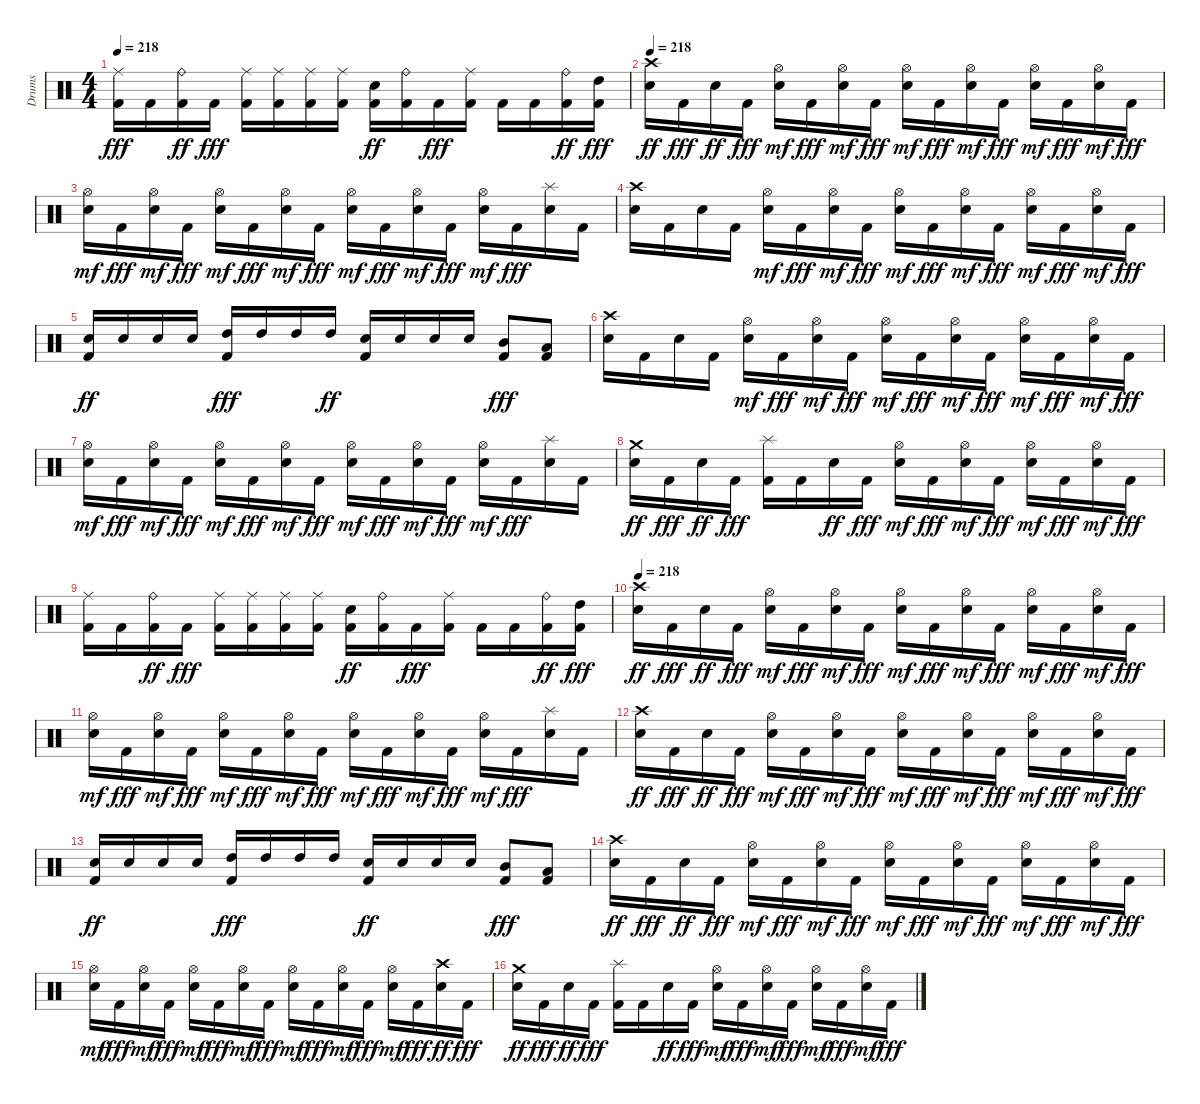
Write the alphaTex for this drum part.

\track ("Drums" "Drums") {instrument percussion}
\staff {score}
\articulation defaults
\ts (4 4)
\tempo 218
\clef neutral
\ks c
("Kick (hit) 2" "Ride (middle)").16{dy fff} "Kick (hit) 2".16 ("Kick (hit) 2" "Ride (bell)").16{dy ff} "Kick (hit) 2".16{dy fff} ("Kick (hit) 2" "Ride (middle)").16 ("Kick (hit) 2" "Ride (middle)").16 ("Kick (hit) 2" "Ride (middle)").16 ("Kick (hit) 2" "Ride (middle)").16 ("Kick (hit) 2" "Snare (hit) 2").16{dy ff} ("Kick (hit) 2" "Ride (bell)").16 "Kick (hit) 2".16{dy fff} ("Kick (hit) 2" "Ride (middle)").16 "Kick (hit) 2".16 "Kick (hit) 2".16 ("Kick (hit) 2" "Ride (bell)").16{dy ff} ("Kick (hit) 2" "High Tom (hit)").16{dy fff} |
\tempo 218
("Snare (hit) 2" "Crash high (hit)").16{dy ff} "Kick (hit) 2".16{dy fff} "Snare (hit) 2".16{dy ff} "Kick (hit) 2".16{dy fff} ("Snare (hit) 2" "Hi-Hat (open)").16{dy mf} "Kick (hit) 2".16{dy fff} ("Snare (hit) 2" "Hi-Hat (open)").16{dy mf} "Kick (hit) 2".16{dy fff} ("Snare (hit) 2" "Hi-Hat (open)").16{dy mf} "Kick (hit) 2".16{dy fff} ("Snare (hit) 2" "Hi-Hat (open)").16{dy mf} "Kick (hit) 2".16{dy fff} ("Snare (hit) 2" "Hi-Hat (open)").16{dy mf} "Kick (hit) 2".16{dy fff} ("Snare (hit) 2" "Hi-Hat (open)").16{dy mf} "Kick (hit) 2".16{dy fff} |
("Snare (hit) 2" "Hi-Hat (open)").16{dy mf} "Kick (hit) 2".16{dy fff} ("Snare (hit) 2" "Hi-Hat (open)").16{dy mf} "Kick (hit) 2".16{dy fff} ("Snare (hit) 2" "Hi-Hat (open)").16{dy mf} "Kick (hit) 2".16{dy fff} ("Snare (hit) 2" "Hi-Hat (open)").16{dy mf} "Kick (hit) 2".16{dy fff} ("Snare (hit) 2" "Hi-Hat (open)").16{dy mf} "Kick (hit) 2".16{dy fff} ("Snare (hit) 2" "Hi-Hat (open)").16{dy mf} "Kick (hit) 2".16{dy fff} ("Snare (hit) 2" "Hi-Hat (open)").16{dy mf} "Kick (hit) 2".16{dy fff} ("Snare (hit) 2" "Splash (hit)").16 "Kick (hit) 2".16 |
("Snare (hit) 2" "Crash high (hit)").16 "Kick (hit) 2".16 "Snare (hit) 2".16 "Kick (hit) 2".16 ("Snare (hit) 2" "Hi-Hat (open)").16{dy mf} "Kick (hit) 2".16{dy fff} ("Snare (hit) 2" "Hi-Hat (open)").16{dy mf} "Kick (hit) 2".16{dy fff} ("Snare (hit) 2" "Hi-Hat (open)").16{dy mf} "Kick (hit) 2".16{dy fff} ("Snare (hit) 2" "Hi-Hat (open)").16{dy mf} "Kick (hit) 2".16{dy fff} ("Snare (hit) 2" "Hi-Hat (open)").16{dy mf} "Kick (hit) 2".16{dy fff} ("Snare (hit) 2" "Hi-Hat (open)").16{dy mf} "Kick (hit) 2".16{dy fff} |
("Kick (hit) 2" "Snare (hit) 2").16{dy ff} "Snare (hit) 2".16 "Snare (hit) 2".16 "Snare (hit) 2".16 ("Kick (hit) 2" "High Tom (hit)").16{dy fff} "High Tom (hit)".16 "High Tom (hit)".16 "High Tom (hit)".16{dy ff} ("Kick (hit) 2" "Snare (hit) 2").16 "Snare (hit) 2".16 "Snare (hit) 2".16 "Snare (hit) 2".16 ("Kick (hit) 2" "Mid Tom (hit)").8{dy fff} ("Kick (hit) 2" "Low Tom (hit)").8 |
("Snare (hit) 2" "Crash high (hit)").16 "Kick (hit) 2".16 "Snare (hit) 2".16 "Kick (hit) 2".16 ("Snare (hit) 2" "Hi-Hat (open)").16{dy mf} "Kick (hit) 2".16{dy fff} ("Snare (hit) 2" "Hi-Hat (open)").16{dy mf} "Kick (hit) 2".16{dy fff} ("Snare (hit) 2" "Hi-Hat (open)").16{dy mf} "Kick (hit) 2".16{dy fff} ("Snare (hit) 2" "Hi-Hat (open)").16{dy mf} "Kick (hit) 2".16{dy fff} ("Snare (hit) 2" "Hi-Hat (open)").16{dy mf} "Kick (hit) 2".16{dy fff} ("Snare (hit) 2" "Hi-Hat (open)").16{dy mf} "Kick (hit) 2".16{dy fff} |
("Snare (hit) 2" "Hi-Hat (open)").16{dy mf} "Kick (hit) 2".16{dy fff} ("Snare (hit) 2" "Hi-Hat (open)").16{dy mf} "Kick (hit) 2".16{dy fff} ("Snare (hit) 2" "Hi-Hat (open)").16{dy mf} "Kick (hit) 2".16{dy fff} ("Snare (hit) 2" "Hi-Hat (open)").16{dy mf} "Kick (hit) 2".16{dy fff} ("Snare (hit) 2" "Hi-Hat (open)").16{dy mf} "Kick (hit) 2".16{dy fff} ("Snare (hit) 2" "Hi-Hat (open)").16{dy mf} "Kick (hit) 2".16{dy fff} ("Snare (hit) 2" "Hi-Hat (open)").16{dy mf} "Kick (hit) 2".16{dy fff} ("Snare (hit) 2" "Splash (hit)").16 "Kick (hit) 2".16 |
("Snare (hit) 2" "Crash medium (hit)").16{dy ff} "Kick (hit) 2".16{dy fff} "Snare (hit) 2".16{dy ff} "Kick (hit) 2".16{dy fff} ("Kick (hit) 2" "Splash (hit)").16 "Kick (hit) 2".16 "Snare (hit) 2".16{dy ff} "Kick (hit) 2".16{dy fff} ("Snare (hit) 2" "Hi-Hat (open)").16{dy mf} "Kick (hit) 2".16{dy fff} ("Snare (hit) 2" "Hi-Hat (open)").16{dy mf} "Kick (hit) 2".16{dy fff} ("Snare (hit) 2" "Hi-Hat (open)").16{dy mf} "Kick (hit) 2".16{dy fff} ("Snare (hit) 2" "Hi-Hat (open)").16{dy mf} "Kick (hit) 2".16{dy fff} |
("Kick (hit) 2" "Ride (middle)").16 "Kick (hit) 2".16 ("Kick (hit) 2" "Ride (bell)").16{dy ff} "Kick (hit) 2".16{dy fff} ("Kick (hit) 2" "Ride (middle)").16 ("Kick (hit) 2" "Ride (middle)").16 ("Kick (hit) 2" "Ride (middle)").16 ("Kick (hit) 2" "Ride (middle)").16 ("Kick (hit) 2" "Snare (hit) 2").16{dy ff} ("Kick (hit) 2" "Ride (bell)").16 "Kick (hit) 2".16{dy fff} ("Kick (hit) 2" "Ride (middle)").16 "Kick (hit) 2".16 "Kick (hit) 2".16 ("Kick (hit) 2" "Ride (bell)").16{dy ff} ("Kick (hit) 2" "High Tom (hit)").16{dy fff} |
\tempo 218
("Snare (hit) 2" "Crash high (hit)").16{dy ff} "Kick (hit) 2".16{dy fff} "Snare (hit) 2".16{dy ff} "Kick (hit) 2".16{dy fff} ("Snare (hit) 2" "Hi-Hat (open)").16{dy mf} "Kick (hit) 2".16{dy fff} ("Snare (hit) 2" "Hi-Hat (open)").16{dy mf} "Kick (hit) 2".16{dy fff} ("Snare (hit) 2" "Hi-Hat (open)").16{dy mf} "Kick (hit) 2".16{dy fff} ("Snare (hit) 2" "Hi-Hat (open)").16{dy mf} "Kick (hit) 2".16{dy fff} ("Snare (hit) 2" "Hi-Hat (open)").16{dy mf} "Kick (hit) 2".16{dy fff} ("Snare (hit) 2" "Hi-Hat (open)").16{dy mf} "Kick (hit) 2".16{dy fff} |
("Snare (hit) 2" "Hi-Hat (open)").16{dy mf} "Kick (hit) 2".16{dy fff} ("Snare (hit) 2" "Hi-Hat (open)").16{dy mf} "Kick (hit) 2".16{dy fff} ("Snare (hit) 2" "Hi-Hat (open)").16{dy mf} "Kick (hit) 2".16{dy fff} ("Snare (hit) 2" "Hi-Hat (open)").16{dy mf} "Kick (hit) 2".16{dy fff} ("Snare (hit) 2" "Hi-Hat (open)").16{dy mf} "Kick (hit) 2".16{dy fff} ("Snare (hit) 2" "Hi-Hat (open)").16{dy mf} "Kick (hit) 2".16{dy fff} ("Snare (hit) 2" "Hi-Hat (open)").16{dy mf} "Kick (hit) 2".16{dy fff} ("Snare (hit) 2" "Splash (hit)").16 "Kick (hit) 2".16 |
("Snare (hit) 2" "Crash high (hit)").16{dy ff} "Kick (hit) 2".16{dy fff} "Snare (hit) 2".16{dy ff} "Kick (hit) 2".16{dy fff} ("Snare (hit) 2" "Hi-Hat (open)").16{dy mf} "Kick (hit) 2".16{dy fff} ("Snare (hit) 2" "Hi-Hat (open)").16{dy mf} "Kick (hit) 2".16{dy fff} ("Snare (hit) 2" "Hi-Hat (open)").16{dy mf} "Kick (hit) 2".16{dy fff} ("Snare (hit) 2" "Hi-Hat (open)").16{dy mf} "Kick (hit) 2".16{dy fff} ("Snare (hit) 2" "Hi-Hat (open)").16{dy mf} "Kick (hit) 2".16{dy fff} ("Snare (hit) 2" "Hi-Hat (open)").16{dy mf} "Kick (hit) 2".16{dy fff} |
("Kick (hit) 2" "Snare (hit) 2").16{dy ff} "Snare (hit) 2".16 "Snare (hit) 2".16 "Snare (hit) 2".16 ("Kick (hit) 2" "High Tom (hit)").16{dy fff} "High Tom (hit)".16 "High Tom (hit)".16 "High Tom (hit)".16 ("Kick (hit) 2" "Snare (hit) 2").16{dy ff} "Snare (hit) 2".16 "Snare (hit) 2".16 "Snare (hit) 2".16 ("Kick (hit) 2" "Mid Tom (hit)").8{dy fff} ("Kick (hit) 2" "Low Tom (hit)").8 |
("Snare (hit) 2" "Crash high (hit)").16{dy ff} "Kick (hit) 2".16{dy fff} "Snare (hit) 2".16{dy ff} "Kick (hit) 2".16{dy fff} ("Snare (hit) 2" "Hi-Hat (open)").16{dy mf} "Kick (hit) 2".16{dy fff} ("Snare (hit) 2" "Hi-Hat (open)").16{dy mf} "Kick (hit) 2".16{dy fff} ("Snare (hit) 2" "Hi-Hat (open)").16{dy mf} "Kick (hit) 2".16{dy fff} ("Snare (hit) 2" "Hi-Hat (open)").16{dy mf} "Kick (hit) 2".16{dy fff} ("Snare (hit) 2" "Hi-Hat (open)").16{dy mf} "Kick (hit) 2".16{dy fff} ("Snare (hit) 2" "Hi-Hat (open)").16{dy mf} "Kick (hit) 2".16{dy fff} |
("Snare (hit) 2" "Hi-Hat (open)").16{dy mf} "Kick (hit) 2".16{dy fff} ("Snare (hit) 2" "Hi-Hat (open)").16{dy mf} "Kick (hit) 2".16{dy fff} ("Snare (hit) 2" "Hi-Hat (open)").16{dy mf} "Kick (hit) 2".16{dy fff} ("Snare (hit) 2" "Hi-Hat (open)").16{dy mf} "Kick (hit) 2".16{dy fff} ("Snare (hit) 2" "Hi-Hat (open)").16{dy mf} "Kick (hit) 2".16{dy fff} ("Snare (hit) 2" "Hi-Hat (open)").16{dy mf} "Kick (hit) 2".16{dy fff} ("Snare (hit) 2" "Hi-Hat (open)").16{dy mf} "Kick (hit) 2".16{dy fff} ("Snare (hit) 2" "Crash high (hit)").16{dy ff} "Kick (hit) 2".16{dy fff} |
("Snare (hit) 2" "Crash medium (hit)").16{dy ff} "Kick (hit) 2".16{dy fff} "Snare (hit) 2".16{dy ff} "Kick (hit) 2".16{dy fff} ("Kick (hit) 2" "Splash (hit)").16 "Kick (hit) 2".16 "Snare (hit) 2".16{dy ff} "Kick (hit) 2".16{dy fff} ("Snare (hit) 2" "Hi-Hat (open)").16{dy mf} "Kick (hit) 2".16{dy fff} ("Snare (hit) 2" "Hi-Hat (open)").16{dy mf} "Kick (hit) 2".16{dy fff} ("Snare (hit) 2" "Hi-Hat (open)").16{dy mf} "Kick (hit) 2".16{dy fff} ("Snare (hit) 2" "Hi-Hat (open)").16{dy mf} "Kick (hit) 2".16{dy fff}
